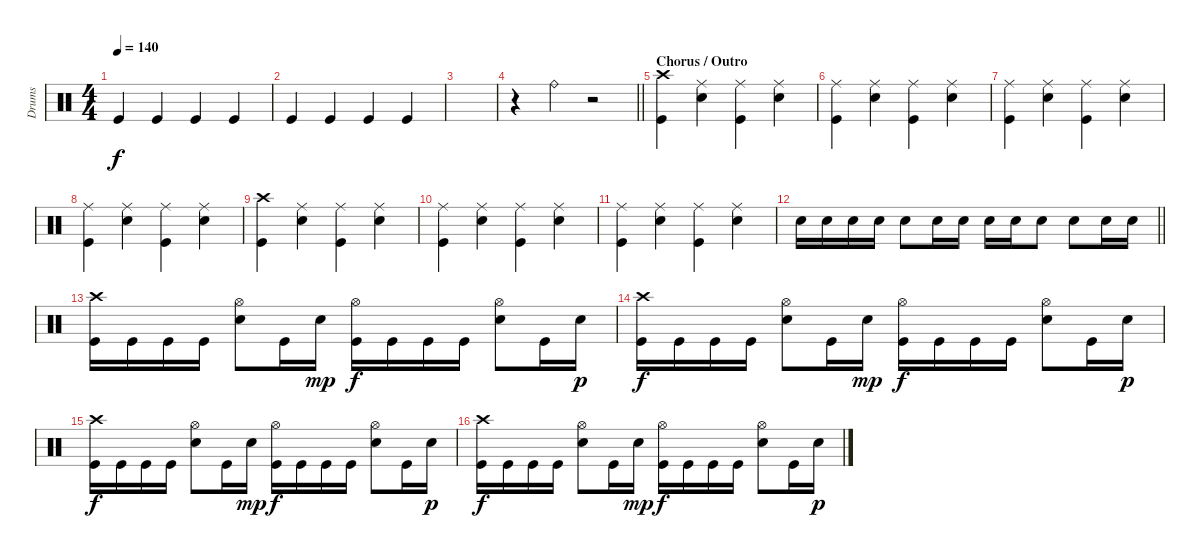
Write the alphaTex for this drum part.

\track ("Drums" "Drums") {instrument percussion}
\staff {score}
\articulation defaults
\ts (4 4)
\tempo 140
\clef neutral
\ks c "Kick (hit)".4{dy f} "Kick (hit)".4 "Kick (hit)".4 "Kick (hit)".4
|
"Kick (hit)".4 "Kick (hit)".4 "Kick (hit)".4 "Kick (hit)".4 |
|
\barLineRight lightlight
r.4 "Ride (bell)".4 r.2 |
\section ("" "Chorus / Outro")
("Crash high (hit)" "Kick (hit)").4 ("Ride (middle)" "Electric Snare (hit)").4 ("Ride (middle)" "Kick (hit)").4 ("Ride (middle)" "Electric Snare (hit)").4 |
("Ride (middle)" "Kick (hit)").4 ("Ride (middle)" "Electric Snare (hit)").4 ("Ride (middle)" "Kick (hit)").4 ("Ride (middle)" "Electric Snare (hit)").4 |
("Ride (middle)" "Kick (hit)").4 ("Ride (middle)" "Electric Snare (hit)").4 ("Ride (middle)" "Kick (hit)").4 ("Ride (middle)" "Electric Snare (hit)").4 |
("Ride (middle)" "Kick (hit)").4 ("Ride (middle)" "Electric Snare (hit)").4 ("Ride (middle)" "Kick (hit)").4 ("Ride (middle)" "Electric Snare (hit)").4 |
("Crash high (hit)" "Kick (hit)").4 ("Ride (middle)" "Electric Snare (hit)").4 ("Ride (middle)" "Kick (hit)").4 ("Ride (middle)" "Electric Snare (hit)").4 |
("Ride (middle)" "Kick (hit)").4 ("Ride (middle)" "Electric Snare (hit)").4 ("Ride (middle)" "Kick (hit)").4 ("Ride (middle)" "Electric Snare (hit)").4 |
("Ride (middle)" "Kick (hit)").4 ("Ride (middle)" "Electric Snare (hit)").4 ("Ride (middle)" "Kick (hit)").4 ("Ride (middle)" "Electric Snare (hit)").4 |
\barLineRight lightlight "Electric Snare (hit)".16 "Electric Snare (hit)".16 "Electric Snare (hit)".16 "Electric Snare (hit)".16 "Electric Snare (hit)".8 "Electric Snare (hit)".16 "Electric Snare (hit)".16 "Electric Snare (hit)".16 "Electric Snare (hit)".16 "Electric Snare (hit)".8 "Electric Snare (hit)".8 "Electric Snare (hit)".16 "Electric Snare (hit)".16
|
("Crash high (hit)" "Kick (hit)").16 "Kick (hit)".16 "Kick (hit)".16 "Kick (hit)".16 ("Hi-Hat (open)" "Electric Snare (hit)").8 "Kick (hit)".16 "Electric Snare (hit)".16{dy mp} ("Hi-Hat (open)" "Kick (hit)").16{dy f} "Kick (hit)".16 "Kick (hit)".16 "Kick (hit)".16 ("Hi-Hat (open)" "Electric Snare (hit)").8 "Kick (hit)".16 "Electric Snare (hit)".16{dy p} |
("Crash high (hit)" "Kick (hit)").16{dy f} "Kick (hit)".16 "Kick (hit)".16 "Kick (hit)".16 ("Hi-Hat (open)" "Electric Snare (hit)").8 "Kick (hit)".16 "Electric Snare (hit)".16{dy mp} ("Hi-Hat (open)" "Kick (hit)").16{dy f} "Kick (hit)".16 "Kick (hit)".16 "Kick (hit)".16 ("Hi-Hat (open)" "Electric Snare (hit)").8 "Kick (hit)".16 "Electric Snare (hit)".16{dy p} |
("Crash high (hit)" "Kick (hit)").16{dy f} "Kick (hit)".16 "Kick (hit)".16 "Kick (hit)".16 ("Hi-Hat (open)" "Electric Snare (hit)").8 "Kick (hit)".16 "Electric Snare (hit)".16{dy mp} ("Hi-Hat (open)" "Kick (hit)").16{dy f} "Kick (hit)".16 "Kick (hit)".16 "Kick (hit)".16 ("Hi-Hat (open)" "Electric Snare (hit)").8 "Kick (hit)".16 "Electric Snare (hit)".16{dy p} |
("Crash high (hit)" "Kick (hit)").16{dy f} "Kick (hit)".16 "Kick (hit)".16 "Kick (hit)".16 ("Hi-Hat (open)" "Electric Snare (hit)").8 "Kick (hit)".16 "Electric Snare (hit)".16{dy mp} ("Hi-Hat (open)" "Kick (hit)").16{dy f} "Kick (hit)".16 "Kick (hit)".16 "Kick (hit)".16 ("Hi-Hat (open)" "Electric Snare (hit)").8 "Kick (hit)".16 "Electric Snare (hit)".16{dy p}
